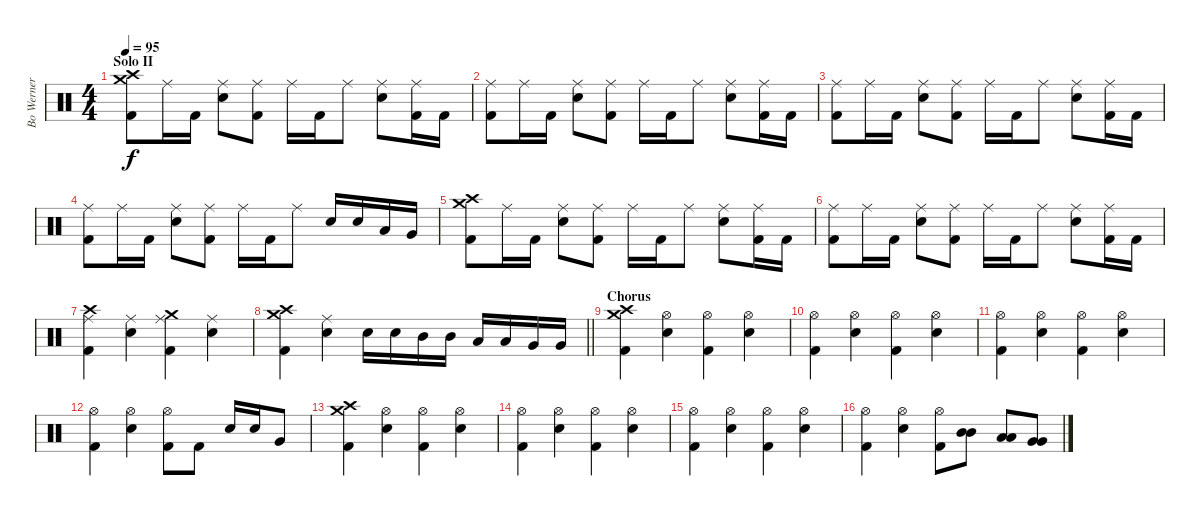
\track ("Bo Werner" "Bo Werner") {instrument percussion}
\staff {score}
\articulation defaults
\ts (4 4)
\section ("" "Solo II")
\tempo 95
\clef neutral
\ks c
("Crash medium (hit)" "Crash high (hit)" "Kick (hit) 2").8{dy f} "Ride (middle)".16 "Kick (hit) 2".16 ("Ride (middle)" "Snare (hit) 2").8 ("Ride (middle)" "Kick (hit) 2").8 "Ride (middle)".16 "Kick (hit) 2".16 "Ride (middle)".8 ("Ride (middle)" "Snare (hit) 2").8 ("Ride (middle)" "Kick (hit) 2").16 "Kick (hit) 2".16 |
("Ride (middle)" "Kick (hit) 2").8 "Ride (middle)".16 "Kick (hit) 2".16 ("Ride (middle)" "Snare (hit) 2").8 ("Ride (middle)" "Kick (hit) 2").8 "Ride (middle)".16 "Kick (hit) 2".16 "Ride (middle)".8 ("Ride (middle)" "Snare (hit) 2").8 ("Ride (middle)" "Kick (hit) 2").16 "Kick (hit) 2".16 |
("Ride (middle)" "Kick (hit) 2").8 "Ride (middle)".16 "Kick (hit) 2".16 ("Ride (middle)" "Snare (hit) 2").8 ("Ride (middle)" "Kick (hit) 2").8 "Ride (middle)".16 "Kick (hit) 2".16 "Ride (middle)".8 ("Ride (middle)" "Snare (hit) 2").8 ("Ride (middle)" "Kick (hit) 2").16 "Kick (hit) 2".16 |
("Ride (middle)" "Kick (hit) 2").8 "Ride (middle)".16 "Kick (hit) 2".16 ("Ride (middle)" "Snare (hit) 2").8 ("Ride (middle)" "Kick (hit) 2").8 "Ride (middle)".16 "Kick (hit) 2".16 "Ride (middle)".8 "Snare (hit) 2".16 "Snare (hit) 2".16 "Low Tom (hit)".16 "Very Low Tom (hit)".16 |
("Crash medium (hit)" "Crash high (hit)" "Kick (hit) 2").8 "Ride (middle)".16 "Kick (hit) 2".16 ("Ride (middle)" "Snare (hit) 2").8 ("Ride (middle)" "Kick (hit) 2").8 "Ride (middle)".16 "Kick (hit) 2".16 "Ride (middle)".8 ("Ride (middle)" "Snare (hit) 2").8 ("Ride (middle)" "Kick (hit) 2").16 "Kick (hit) 2".16 |
("Ride (middle)" "Kick (hit) 2").8 "Ride (middle)".16 "Kick (hit) 2".16 ("Ride (middle)" "Snare (hit) 2").8 ("Ride (middle)" "Kick (hit) 2").8 "Ride (middle)".16 "Kick (hit) 2".16 "Ride (middle)".8 ("Ride (middle)" "Snare (hit) 2").8 ("Ride (middle)" "Kick (hit) 2").16 "Kick (hit) 2".16 |
("Crash high (hit)" "Ride (middle)" "Kick (hit) 2").4 ("Ride (middle)" "Snare (hit) 2").4 ("Crash medium (hit)" "Ride (middle)" "Kick (hit) 2").4 ("Ride (middle)" "Snare (hit) 2").4 |
\barLineRight lightlight
("Crash high (hit)" "Crash medium (hit)" "Kick (hit) 2").4 ("Ride (middle)" "Snare (hit) 2").4 "Snare (hit) 2".16 "Snare (hit) 2".16 "Mid Tom (hit)".16 "Mid Tom (hit)".16 "Low Tom (hit)".16 "Low Tom (hit)".16 "Very Low Tom (hit)".16 "Very Low Tom (hit)".16 |
\section ("" "Chorus")
("Crash medium (hit)" "Crash high (hit)" "Kick (hit) 2").4 ("Hi-Hat (open)" "Snare (hit) 2").4 ("Hi-Hat (open)" "Kick (hit) 2").4 ("Hi-Hat (open)" "Snare (hit) 2").4 |
("Hi-Hat (open)" "Kick (hit) 2").4 ("Hi-Hat (open)" "Snare (hit) 2").4 ("Hi-Hat (open)" "Kick (hit) 2").4 ("Hi-Hat (open)" "Snare (hit) 2").4 |
("Hi-Hat (open)" "Kick (hit) 2").4 ("Hi-Hat (open)" "Snare (hit) 2").4 ("Hi-Hat (open)" "Kick (hit) 2").4 ("Hi-Hat (open)" "Snare (hit) 2").4 |
("Hi-Hat (open)" "Kick (hit) 2").4 ("Hi-Hat (open)" "Snare (hit) 2").4 ("Hi-Hat (open)" "Kick (hit) 2").8 "Kick (hit) 2".8 "Snare (hit) 2".16 "Snare (hit) 2".16 "Very Low Tom (hit)".8 |
("Crash high (hit)" "Crash medium (hit)" "Kick (hit) 2").4 ("Hi-Hat (open)" "Snare (hit) 2").4 ("Hi-Hat (open)" "Kick (hit) 2").4 ("Hi-Hat (open)" "Snare (hit) 2").4 |
("Hi-Hat (open)" "Kick (hit) 2").4 ("Hi-Hat (open)" "Snare (hit) 2").4 ("Hi-Hat (open)" "Kick (hit) 2").4 ("Hi-Hat (open)" "Snare (hit) 2").4 |
("Hi-Hat (open)" "Kick (hit) 2").4 ("Hi-Hat (open)" "Snare (hit) 2").4 ("Hi-Hat (open)" "Kick (hit) 2").4 ("Hi-Hat (open)" "Snare (hit) 2").4 |
("Hi-Hat (open)" "Kick (hit) 2").4 ("Hi-Hat (open)" "Snare (hit) 2").4 ("Hi-Hat (open)" "Kick (hit) 2").8 ("Mid Tom (hit)" "Mid Tom (hit)").8 ("Low Tom (hit)" "Low Tom (hit)").8 ("Very Low Tom (hit)" "Very Low Tom (hit)").8
